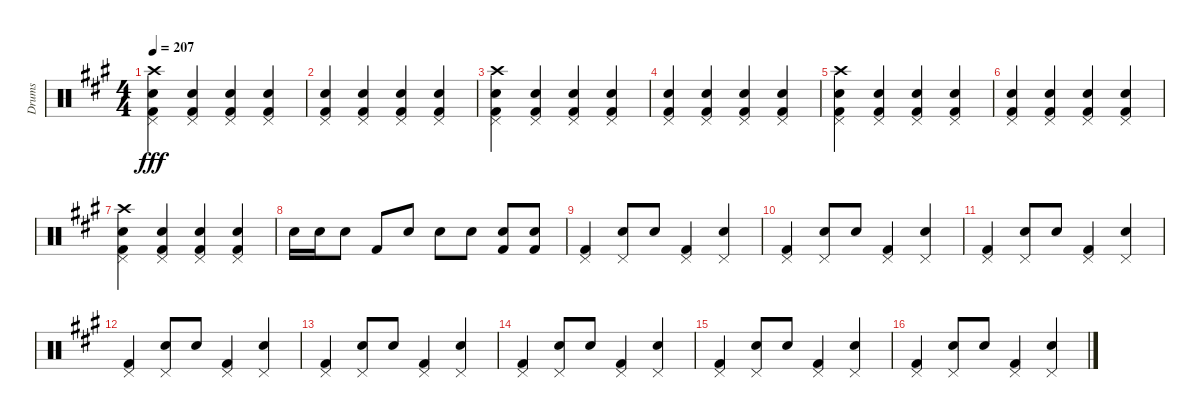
\track ("Drums" "Drums") {instrument percussion}
\staff {score}
\articulation defaults
\ts (4 4)
\tempo 207
\clef neutral
\ks a
("Crash high (hit)" "Pedal Hi-Hat (hit)" "Snare (hit) 2" "Kick (hit) 2").4{dy fff} ("Pedal Hi-Hat (hit)" "Snare (hit) 2" "Kick (hit) 2").4 ("Pedal Hi-Hat (hit)" "Snare (hit) 2" "Kick (hit) 2").4 ("Pedal Hi-Hat (hit)" "Snare (hit) 2" "Kick (hit) 2").4 |
("Pedal Hi-Hat (hit)" "Snare (hit) 2" "Kick (hit) 2").4 ("Pedal Hi-Hat (hit)" "Snare (hit) 2" "Kick (hit) 2").4 ("Pedal Hi-Hat (hit)" "Snare (hit) 2" "Kick (hit) 2").4 ("Pedal Hi-Hat (hit)" "Snare (hit) 2" "Kick (hit) 2").4 |
("Crash high (hit)" "Pedal Hi-Hat (hit)" "Snare (hit) 2" "Kick (hit) 2").4 ("Pedal Hi-Hat (hit)" "Snare (hit) 2" "Kick (hit) 2").4 ("Pedal Hi-Hat (hit)" "Snare (hit) 2" "Kick (hit) 2").4 ("Pedal Hi-Hat (hit)" "Snare (hit) 2" "Kick (hit) 2").4 |
("Pedal Hi-Hat (hit)" "Snare (hit) 2" "Kick (hit) 2").4 ("Pedal Hi-Hat (hit)" "Snare (hit) 2" "Kick (hit) 2").4 ("Pedal Hi-Hat (hit)" "Snare (hit) 2" "Kick (hit) 2").4 ("Pedal Hi-Hat (hit)" "Snare (hit) 2" "Kick (hit) 2").4 |
("Crash high (hit)" "Pedal Hi-Hat (hit)" "Snare (hit) 2" "Kick (hit) 2").4 ("Pedal Hi-Hat (hit)" "Snare (hit) 2" "Kick (hit) 2").4 ("Pedal Hi-Hat (hit)" "Snare (hit) 2" "Kick (hit) 2").4 ("Pedal Hi-Hat (hit)" "Snare (hit) 2" "Kick (hit) 2").4 |
("Pedal Hi-Hat (hit)" "Snare (hit) 2" "Kick (hit) 2").4 ("Pedal Hi-Hat (hit)" "Snare (hit) 2" "Kick (hit) 2").4 ("Pedal Hi-Hat (hit)" "Snare (hit) 2" "Kick (hit) 2").4 ("Pedal Hi-Hat (hit)" "Snare (hit) 2" "Kick (hit) 2").4 |
("Crash high (hit)" "Pedal Hi-Hat (hit)" "Snare (hit) 2" "Kick (hit) 2").4 ("Pedal Hi-Hat (hit)" "Snare (hit) 2" "Kick (hit) 2").4 ("Pedal Hi-Hat (hit)" "Snare (hit) 2" "Kick (hit) 2").4 ("Pedal Hi-Hat (hit)" "Snare (hit) 2" "Kick (hit) 2").4 |
"Snare (hit) 2".16 "Snare (hit) 2".16 "Snare (hit) 2".8 "Kick (hit) 2".8 "Snare (hit) 2".8 "Snare (hit) 2".8 "Snare (hit) 2".8 ("Snare (hit) 2" "Kick (hit) 2").8 ("Snare (hit) 2" "Kick (hit) 2").8 |
("Pedal Hi-Hat (hit)" "Kick (hit) 2").4 ("Pedal Hi-Hat (hit)" "Snare (hit) 2").8 "Snare (hit) 2".8 ("Pedal Hi-Hat (hit)" "Kick (hit) 2").4 ("Pedal Hi-Hat (hit)" "Snare (hit) 2").4 |
("Pedal Hi-Hat (hit)" "Kick (hit) 2").4 ("Pedal Hi-Hat (hit)" "Snare (hit) 2").8 "Snare (hit) 2".8 ("Pedal Hi-Hat (hit)" "Kick (hit) 2").4 ("Pedal Hi-Hat (hit)" "Snare (hit) 2").4 |
("Pedal Hi-Hat (hit)" "Kick (hit) 2").4 ("Pedal Hi-Hat (hit)" "Snare (hit) 2").8 "Snare (hit) 2".8 ("Pedal Hi-Hat (hit)" "Kick (hit) 2").4 ("Pedal Hi-Hat (hit)" "Snare (hit) 2").4 |
("Pedal Hi-Hat (hit)" "Kick (hit) 2").4 ("Pedal Hi-Hat (hit)" "Snare (hit) 2").8 "Snare (hit) 2".8 ("Pedal Hi-Hat (hit)" "Kick (hit) 2").4 ("Pedal Hi-Hat (hit)" "Snare (hit) 2").4 |
("Pedal Hi-Hat (hit)" "Kick (hit) 2").4 ("Pedal Hi-Hat (hit)" "Snare (hit) 2").8 "Snare (hit) 2".8 ("Pedal Hi-Hat (hit)" "Kick (hit) 2").4 ("Pedal Hi-Hat (hit)" "Snare (hit) 2").4 |
("Pedal Hi-Hat (hit)" "Kick (hit) 2").4 ("Pedal Hi-Hat (hit)" "Snare (hit) 2").8 "Snare (hit) 2".8 ("Pedal Hi-Hat (hit)" "Kick (hit) 2").4 ("Pedal Hi-Hat (hit)" "Snare (hit) 2").4 |
("Pedal Hi-Hat (hit)" "Kick (hit) 2").4 ("Pedal Hi-Hat (hit)" "Snare (hit) 2").8 "Snare (hit) 2".8 ("Pedal Hi-Hat (hit)" "Kick (hit) 2").4 ("Pedal Hi-Hat (hit)" "Snare (hit) 2").4 |
("Pedal Hi-Hat (hit)" "Kick (hit) 2").4 ("Pedal Hi-Hat (hit)" "Snare (hit) 2").8 "Snare (hit) 2".8 ("Pedal Hi-Hat (hit)" "Kick (hit) 2").4 ("Pedal Hi-Hat (hit)" "Snare (hit) 2").4
